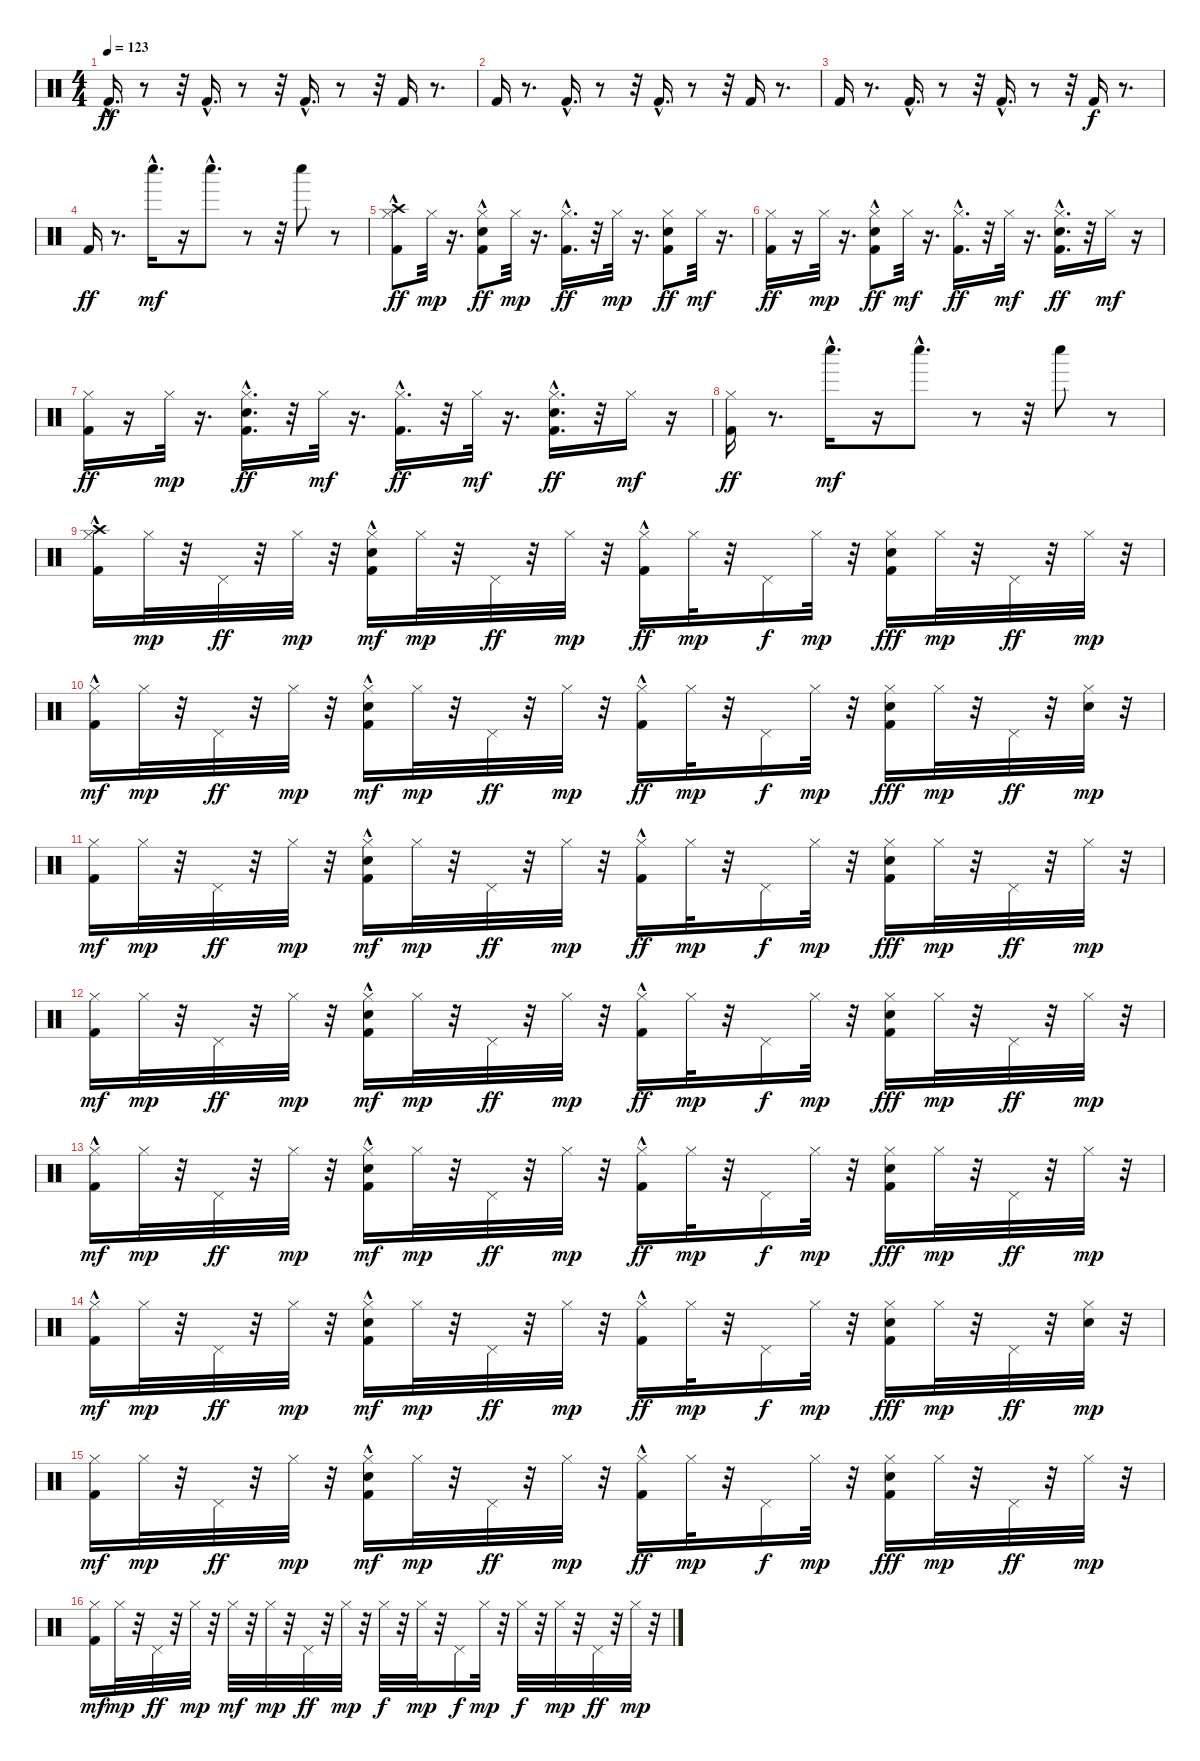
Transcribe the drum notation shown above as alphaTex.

\track "" {instrument percussion}
\staff {score}
\articulation defaults
\ts (4 4)
\tempo 123
\clef neutral
\ks c "Kick (hit) 2"{hac}.16{d dy ff}
r.8 r.32 "Kick (hit) 2"{hac}.16{d} r.8 r.32 "Kick (hit) 2"{hac}.16{d} r.8 r.32 "Kick (hit) 2".16 r.8{d} |
"Kick (hit) 2".16 r.8{d} "Kick (hit) 2"{hac}.16{d} r.8 r.32 "Kick (hit) 2"{hac}.16{d} r.8 r.32 "Kick (hit) 2".16 r.8{d} |
"Kick (hit) 2".16 r.8{d} "Kick (hit) 2"{hac}.16{d} r.8 r.32 "Kick (hit) 2"{hac}.16{d} r.8 r.32 "Kick (hit) 2".16{dy f} r.8{d} |
"Kick (hit) 2".16{dy ff} r.8{d} "Whistle low (hit)"{hac}.16{d dy mf} r.16 "Whistle low (hit)"{hac}.8{d} r.8 r.32 "Whistle low (hit)".8 r.8 |
("Kick (hit) 2"{hac} "Crash high (hit)" "Hi-Hat (closed)").8{dy ff} "Hi-Hat (closed)".32{dy mp} r.16{d} ("Kick (hit) 2"{hac} "Snare (hit) 2" "Hi-Hat (closed)").8{dy ff} "Hi-Hat (closed)".32{dy mp} r.16{d} ("Kick (hit) 2"{hac} "Hi-Hat (closed)").16{d dy ff} r.32 "Hi-Hat (closed)".32{dy mp} r.16{d} ("Kick (hit) 2" "Snare (hit) 2" "Hi-Hat (closed)").8{dy ff} "Hi-Hat (closed)".32{dy mf} r.16{d} |
("Kick (hit) 2" "Hi-Hat (closed)").16{dy ff} r.16 "Hi-Hat (closed)".32{dy mp} r.16{d} ("Kick (hit) 2"{hac} "Snare (hit) 2" "Hi-Hat (closed)").8{dy ff} "Hi-Hat (closed)".32{dy mf} r.16{d} ("Kick (hit) 2"{hac} "Hi-Hat (closed)").16{d dy ff} r.32 "Hi-Hat (closed)".32{dy mf} r.16{d} ("Kick (hit) 2" "Snare (hit) 2"{hac} "Hi-Hat (closed)").16{d dy ff} r.32 "Hi-Hat (closed)".16{dy mf} r.16 |
("Kick (hit) 2" "Hi-Hat (closed)").16{dy ff} r.16 "Hi-Hat (closed)".32{dy mp} r.16{d} ("Kick (hit) 2"{hac} "Snare (hit) 2"{hac} "Hi-Hat (closed)").16{d dy ff} r.32 "Hi-Hat (closed)".32{dy mf} r.16{d} ("Kick (hit) 2"{hac} "Hi-Hat (closed)").16{d dy ff} r.32 "Hi-Hat (closed)".32{dy mf} r.16{d} ("Kick (hit) 2" "Snare (hit) 2"{hac} "Hi-Hat (closed)").16{d dy ff} r.32 "Hi-Hat (closed)".16{dy mf} r.16 |
("Kick (hit) 2" "Hi-Hat (closed)").16{dy ff} r.8{d} "Whistle low (hit)"{hac}.16{d dy mf} r.16 "Whistle low (hit)"{hac}.8{d} r.8 r.32 "Whistle low (hit)".8 r.8 |
("Kick (hit) 2"{hac} "Crash high (hit)" "Hi-Hat (closed)").16 "Hi-Hat (closed)".32{dy mp} r.32 "Pedal Hi-Hat (hit)".32{dy ff} r.32 "Hi-Hat (closed)".32{dy mp} r.32 ("Kick (hit) 2"{hac} "Snare (hit) 2" "Hi-Hat (closed)").16{dy mf} "Hi-Hat (closed)".32{dy mp} r.32 "Pedal Hi-Hat (hit)".32{dy ff} r.32 "Hi-Hat (closed)".32{dy mp} r.32 ("Kick (hit) 2"{hac} "Hi-Hat (closed)").16{dy ff} "Hi-Hat (closed)".32{dy mp} r.32 "Pedal Hi-Hat (hit)".16{dy f} "Hi-Hat (closed)".32{dy mp} r.32 ("Kick (hit) 2" "Snare (hit) 2" "Hi-Hat (closed)").16{dy fff} "Hi-Hat (closed)".32{dy mp} r.32 "Pedal Hi-Hat (hit)".32{dy ff} r.32 "Hi-Hat (closed)".32{dy mp} r.32 |
("Kick (hit) 2"{hac} "Hi-Hat (closed)").16{dy mf} "Hi-Hat (closed)".32{dy mp} r.32 "Pedal Hi-Hat (hit)".32{dy ff} r.32 "Hi-Hat (closed)".32{dy mp} r.32 ("Kick (hit) 2"{hac} "Snare (hit) 2" "Hi-Hat (closed)").16{dy mf} "Hi-Hat (closed)".32{dy mp} r.32 "Pedal Hi-Hat (hit)".32{dy ff} r.32 "Hi-Hat (closed)".32{dy mp} r.32 ("Kick (hit) 2"{hac} "Hi-Hat (closed)").16{dy ff} "Hi-Hat (closed)".32{dy mp} r.32 "Pedal Hi-Hat (hit)".16{dy f} "Hi-Hat (closed)".32{dy mp} r.32 ("Kick (hit) 2" "Snare (hit) 2" "Hi-Hat (closed)").16{dy fff} "Hi-Hat (closed)".32{dy mp} r.32 "Pedal Hi-Hat (hit)".32{dy ff} r.32 ("Hi-Hat (closed)" "Snare (hit) 2").32{dy mp} r.32 |
("Kick (hit) 2" "Hi-Hat (closed)").16{dy mf} "Hi-Hat (closed)".32{dy mp} r.32 "Pedal Hi-Hat (hit)".32{dy ff} r.32 "Hi-Hat (closed)".32{dy mp} r.32 ("Kick (hit) 2"{hac} "Snare (hit) 2" "Hi-Hat (closed)").16{dy mf} "Hi-Hat (closed)".32{dy mp} r.32 "Pedal Hi-Hat (hit)".32{dy ff} r.32 "Hi-Hat (closed)".32{dy mp} r.32 ("Kick (hit) 2"{hac} "Hi-Hat (closed)").16{dy ff} "Hi-Hat (closed)".32{dy mp} r.32 "Pedal Hi-Hat (hit)".16{dy f} "Hi-Hat (closed)".32{dy mp} r.32 ("Kick (hit) 2" "Snare (hit) 2" "Hi-Hat (closed)").16{dy fff} "Hi-Hat (closed)".32{dy mp} r.32 "Pedal Hi-Hat (hit)".32{dy ff} r.32 "Hi-Hat (closed)".32{dy mp} r.32 |
("Kick (hit) 2" "Hi-Hat (closed)").16{dy mf} "Hi-Hat (closed)".32{dy mp} r.32 "Pedal Hi-Hat (hit)".32{dy ff} r.32 "Hi-Hat (closed)".32{dy mp} r.32 ("Kick (hit) 2"{hac} "Snare (hit) 2" "Hi-Hat (closed)").16{dy mf} "Hi-Hat (closed)".32{dy mp} r.32 "Pedal Hi-Hat (hit)".32{dy ff} r.32 "Hi-Hat (closed)".32{dy mp} r.32 ("Kick (hit) 2"{hac} "Hi-Hat (closed)").16{dy ff} "Hi-Hat (closed)".32{dy mp} r.32 "Pedal Hi-Hat (hit)".16{dy f} "Hi-Hat (closed)".32{dy mp} r.32 ("Kick (hit) 2" "Snare (hit) 2" "Hi-Hat (closed)").16{dy fff} "Hi-Hat (closed)".32{dy mp} r.32 "Pedal Hi-Hat (hit)".32{dy ff} r.32 "Hi-Hat (closed)".32{dy mp} r.32 |
("Kick (hit) 2"{hac} "Hi-Hat (closed)").16{dy mf} "Hi-Hat (closed)".32{dy mp} r.32 "Pedal Hi-Hat (hit)".32{dy ff} r.32 "Hi-Hat (closed)".32{dy mp} r.32 ("Kick (hit) 2"{hac} "Snare (hit) 2" "Hi-Hat (closed)").16{dy mf} "Hi-Hat (closed)".32{dy mp} r.32 "Pedal Hi-Hat (hit)".32{dy ff} r.32 "Hi-Hat (closed)".32{dy mp} r.32 ("Kick (hit) 2"{hac} "Hi-Hat (closed)").16{dy ff} "Hi-Hat (closed)".32{dy mp} r.32 "Pedal Hi-Hat (hit)".16{dy f} "Hi-Hat (closed)".32{dy mp} r.32 ("Kick (hit) 2" "Snare (hit) 2" "Hi-Hat (closed)").16{dy fff} "Hi-Hat (closed)".32{dy mp} r.32 "Pedal Hi-Hat (hit)".32{dy ff} r.32 "Hi-Hat (closed)".32{dy mp} r.32 |
("Kick (hit) 2"{hac} "Hi-Hat (closed)").16{dy mf} "Hi-Hat (closed)".32{dy mp} r.32 "Pedal Hi-Hat (hit)".32{dy ff} r.32 "Hi-Hat (closed)".32{dy mp} r.32 ("Kick (hit) 2"{hac} "Snare (hit) 2" "Hi-Hat (closed)").16{dy mf} "Hi-Hat (closed)".32{dy mp} r.32 "Pedal Hi-Hat (hit)".32{dy ff} r.32 "Hi-Hat (closed)".32{dy mp} r.32 ("Kick (hit) 2"{hac} "Hi-Hat (closed)").16{dy ff} "Hi-Hat (closed)".32{dy mp} r.32 "Pedal Hi-Hat (hit)".16{dy f} "Hi-Hat (closed)".32{dy mp} r.32 ("Kick (hit) 2" "Snare (hit) 2" "Hi-Hat (closed)").16{dy fff} "Hi-Hat (closed)".32{dy mp} r.32 "Pedal Hi-Hat (hit)".32{dy ff} r.32 ("Hi-Hat (closed)" "Snare (hit) 2").32{dy mp} r.32 |
("Kick (hit) 2" "Hi-Hat (closed)").16{dy mf} "Hi-Hat (closed)".32{dy mp} r.32 "Pedal Hi-Hat (hit)".32{dy ff} r.32 "Hi-Hat (closed)".32{dy mp} r.32 ("Kick (hit) 2"{hac} "Snare (hit) 2" "Hi-Hat (closed)").16{dy mf} "Hi-Hat (closed)".32{dy mp} r.32 "Pedal Hi-Hat (hit)".32{dy ff} r.32 "Hi-Hat (closed)".32{dy mp} r.32 ("Kick (hit) 2"{hac} "Hi-Hat (closed)").16{dy ff} "Hi-Hat (closed)".32{dy mp} r.32 "Pedal Hi-Hat (hit)".16{dy f} "Hi-Hat (closed)".32{dy mp} r.32 ("Kick (hit) 2" "Snare (hit) 2" "Hi-Hat (closed)").16{dy fff} "Hi-Hat (closed)".32{dy mp} r.32 "Pedal Hi-Hat (hit)".32{dy ff} r.32 "Hi-Hat (closed)".32{dy mp} r.32 |
("Kick (hit) 2" "Hi-Hat (closed)").16{dy mf} "Hi-Hat (closed)".32{dy mp} r.32 "Pedal Hi-Hat (hit)".32{dy ff} r.32 "Hi-Hat (closed)".32{dy mp} r.32 "Hi-Hat (closed)".32{dy mf} r.32 "Hi-Hat (closed)".32{dy mp} r.32 "Pedal Hi-Hat (hit)".32{dy ff} r.32 "Hi-Hat (closed)".32{dy mp} r.32 "Hi-Hat (closed)".32{dy f} r.32 "Hi-Hat (closed)".32{dy mp} r.32 "Pedal Hi-Hat (hit)".16{dy f} "Hi-Hat (closed)".32{dy mp} r.32 "Hi-Hat (closed)".32{dy f} r.32 "Hi-Hat (closed)".32{dy mp} r.32 "Pedal Hi-Hat (hit)".32{dy ff} r.32 "Hi-Hat (closed)".32{dy mp} r.32
